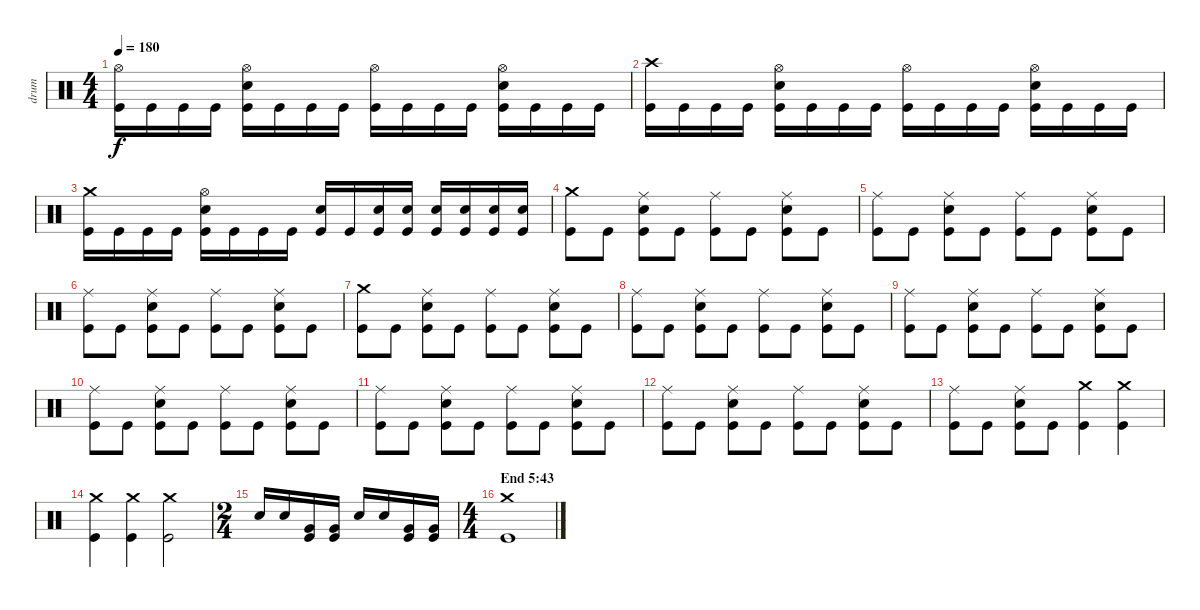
\track ("drum" "drum") {instrument percussion}
\staff {score}
\articulation defaults
\ts (4 4)
\tempo 180
\clef neutral
\ks c
("Hi-Hat (open)" "Kick (hit)").16{dy f} "Kick (hit)".16 "Kick (hit)".16 "Kick (hit)".16 ("Hi-Hat (open)" "Snare (hit) 2" "Kick (hit)").16 "Kick (hit)".16 "Kick (hit)".16 "Kick (hit)".16 ("Hi-Hat (open)" "Kick (hit)").16 "Kick (hit)".16 "Kick (hit)".16 "Kick (hit)".16 ("Hi-Hat (open)" "Snare (hit) 2" "Kick (hit)").16 "Kick (hit)".16 "Kick (hit)".16 "Kick (hit)".16 |
("Crash high (hit)" "Kick (hit)").16 "Kick (hit)".16 "Kick (hit)".16 "Kick (hit)".16 ("Hi-Hat (open)" "Snare (hit) 2" "Kick (hit)").16 "Kick (hit)".16 "Kick (hit)".16 "Kick (hit)".16 ("Hi-Hat (open)" "Kick (hit)").16 "Kick (hit)".16 "Kick (hit)".16 "Kick (hit)".16 ("Hi-Hat (open)" "Snare (hit) 2" "Kick (hit)").16 "Kick (hit)".16 "Kick (hit)".16 "Kick (hit)".16 |
("Crash medium (hit)" "Kick (hit)").16 "Kick (hit)".16 "Kick (hit)".16 "Kick (hit)".16 ("Hi-Hat (open)" "Snare (hit) 2" "Kick (hit)").16 "Kick (hit)".16 "Kick (hit)".16 "Kick (hit)".16 ("Snare (hit) 2" "Kick (hit)").16 "Kick (hit)".16 ("Snare (hit) 2" "Kick (hit)").16 ("Snare (hit) 2" "Kick (hit)").16 ("Snare (hit) 2" "Kick (hit)").16 ("Snare (hit) 2" "Kick (hit)").16 ("Snare (hit) 2" "Kick (hit)").16 ("Snare (hit) 2" "Kick (hit)").16 |
("Crash medium (hit)" "Kick (hit)").8 "Kick (hit)".8 ("Ride (middle)" "Snare (hit) 2" "Kick (hit)").8 "Kick (hit)".8 ("Ride (middle)" "Kick (hit)").8 "Kick (hit)".8 ("Ride (middle)" "Snare (hit) 2" "Kick (hit)").8 "Kick (hit)".8 |
("Ride (middle)" "Kick (hit)").8 "Kick (hit)".8 ("Ride (middle)" "Snare (hit) 2" "Kick (hit)").8 "Kick (hit)".8 ("Ride (middle)" "Kick (hit)").8 "Kick (hit)".8 ("Ride (middle)" "Snare (hit) 2" "Kick (hit)").8 "Kick (hit)".8 |
("Ride (middle)" "Kick (hit)").8 "Kick (hit)".8 ("Ride (middle)" "Snare (hit) 2" "Kick (hit)").8 "Kick (hit)".8 ("Ride (middle)" "Kick (hit)").8 "Kick (hit)".8 ("Ride (middle)" "Snare (hit) 2" "Kick (hit)").8 "Kick (hit)".8 |
("Crash medium (hit)" "Kick (hit)").8 "Kick (hit)".8 ("Ride (middle)" "Snare (hit) 2" "Kick (hit)").8 "Kick (hit)".8 ("Ride (middle)" "Kick (hit)").8 "Kick (hit)".8 ("Ride (middle)" "Snare (hit) 2" "Kick (hit)").8 "Kick (hit)".8 |
("Ride (middle)" "Kick (hit)").8 "Kick (hit)".8 ("Ride (middle)" "Snare (hit) 2" "Kick (hit)").8 "Kick (hit)".8 ("Ride (middle)" "Kick (hit)").8 "Kick (hit)".8 ("Ride (middle)" "Snare (hit) 2" "Kick (hit)").8 "Kick (hit)".8 |
("Ride (middle)" "Kick (hit)").8 "Kick (hit)".8 ("Ride (middle)" "Snare (hit) 2" "Kick (hit)").8 "Kick (hit)".8 ("Ride (middle)" "Kick (hit)").8 "Kick (hit)".8 ("Ride (middle)" "Snare (hit) 2" "Kick (hit)").8 "Kick (hit)".8 |
("Ride (middle)" "Kick (hit)").8 "Kick (hit)".8 ("Ride (middle)" "Snare (hit) 2" "Kick (hit)").8 "Kick (hit)".8 ("Ride (middle)" "Kick (hit)").8 "Kick (hit)".8 ("Ride (middle)" "Snare (hit) 2" "Kick (hit)").8 "Kick (hit)".8 |
("Ride (middle)" "Kick (hit)").8 "Kick (hit)".8 ("Ride (middle)" "Snare (hit) 2" "Kick (hit)").8 "Kick (hit)".8 ("Ride (middle)" "Kick (hit)").8 "Kick (hit)".8 ("Ride (middle)" "Snare (hit) 2" "Kick (hit)").8 "Kick (hit)".8 |
("Ride (middle)" "Kick (hit)").8 "Kick (hit)".8 ("Ride (middle)" "Snare (hit) 2" "Kick (hit)").8 "Kick (hit)".8 ("Ride (middle)" "Kick (hit)").8 "Kick (hit)".8 ("Ride (middle)" "Snare (hit) 2" "Kick (hit)").8 "Kick (hit)".8 |
("Ride (middle)" "Kick (hit)").8 "Kick (hit)".8 ("Ride (middle)" "Snare (hit) 2" "Kick (hit)").8 "Kick (hit)".8 ("Crash medium (hit)" "Kick (hit)").4 ("Crash medium (hit)" "Kick (hit)").4 |
("Crash medium (hit)" "Kick (hit)").4 ("Crash medium (hit)" "Kick (hit)").4 ("Crash medium (hit)" "Kick (hit)").2 |
\ts (2 4)
"Snare (hit) 2".16 "Snare (hit) 2".16 ("Very Low Tom (hit)" "Kick (hit)").16 ("Very Low Tom (hit)" "Kick (hit)").16 "Snare (hit) 2".16 "Snare (hit) 2".16 ("Very Low Tom (hit)" "Kick (hit)").16 ("Very Low Tom (hit)" "Kick (hit)").16 |
\ts (4 4)
\section ("" "End 5:43")
("Crash medium (hit)" "Kick (hit)").1
